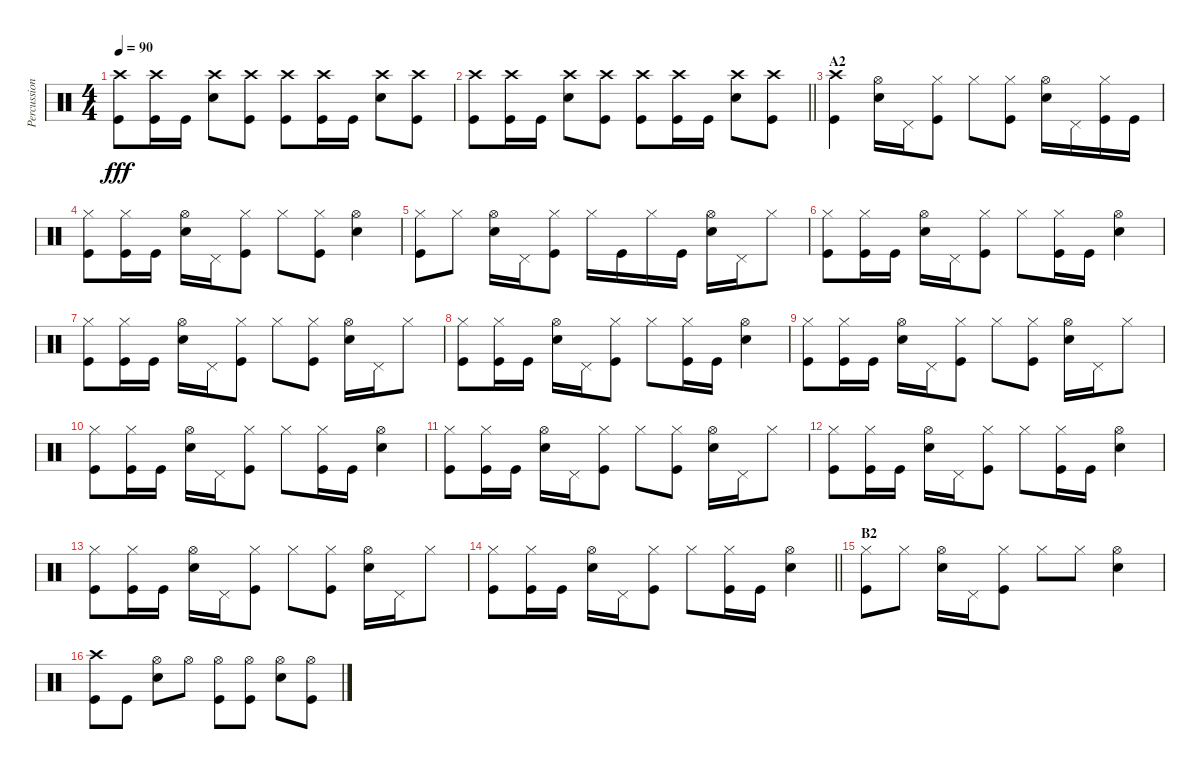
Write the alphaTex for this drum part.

\track ("Percussion" "Percussion") {instrument percussion}
\staff {score}
\articulation defaults
\ts (4 4)
\tempo 90
\clef neutral
\ks c
("Crash high (hit)" "Kick (hit)").8{dy fff} ("Crash high (hit)" "Kick (hit)").16 "Kick (hit)".16 ("Crash high (hit)" "Electric Snare (hit)").8 ("Crash high (hit)" "Kick (hit)").8 ("Crash high (hit)" "Kick (hit)").8 ("Crash high (hit)" "Kick (hit)").16 "Kick (hit)".16 ("Crash high (hit)" "Electric Snare (hit)").8 ("Crash high (hit)" "Kick (hit)").8 |
\barLineRight lightlight
("Crash high (hit)" "Kick (hit)").8 ("Crash high (hit)" "Kick (hit)").16 "Kick (hit)".16 ("Crash high (hit)" "Electric Snare (hit)").8 ("Crash high (hit)" "Kick (hit)").8 ("Crash high (hit)" "Kick (hit)").8 ("Crash high (hit)" "Kick (hit)").16 "Kick (hit)".16 ("Crash high (hit)" "Electric Snare (hit)").8 ("Crash high (hit)" "Kick (hit)").8 |
\section ("" "A2")
("Crash high (hit)" "Kick (hit)").4 ("Hi-Hat (open)" "Electric Snare (hit)").16 "Pedal Hi-Hat (hit)".16 ("Hi-Hat (closed)" "Kick (hit)").8 "Hi-Hat (closed)".8 ("Hi-Hat (closed)" "Kick (hit)").8 ("Hi-Hat (open)" "Electric Snare (hit)").16 "Pedal Hi-Hat (hit)".16 ("Hi-Hat (closed)" "Kick (hit)").16 "Kick (hit)".16 |
("Hi-Hat (closed)" "Kick (hit)").8 ("Hi-Hat (closed)" "Kick (hit)").16 "Kick (hit)".16 ("Hi-Hat (open)" "Electric Snare (hit)").16 "Pedal Hi-Hat (hit)".16 ("Hi-Hat (closed)" "Kick (hit)").8 "Hi-Hat (closed)".8 ("Hi-Hat (closed)" "Kick (hit)").8 ("Hi-Hat (open)" "Electric Snare (hit)").4 |
("Hi-Hat (closed)" "Kick (hit)").8 "Hi-Hat (closed)".8 ("Hi-Hat (open)" "Electric Snare (hit)").16 "Pedal Hi-Hat (hit)".16 ("Hi-Hat (closed)" "Kick (hit)").8 "Hi-Hat (closed)".16 "Kick (hit)".16 "Hi-Hat (closed)".16 "Kick (hit)".16 ("Hi-Hat (open)" "Electric Snare (hit)").16 "Pedal Hi-Hat (hit)".16 "Hi-Hat (closed)".8 |
("Hi-Hat (closed)" "Kick (hit)").8 ("Hi-Hat (closed)" "Kick (hit)").16 "Kick (hit)".16 ("Hi-Hat (open)" "Electric Snare (hit)").16 "Pedal Hi-Hat (hit)".16 ("Hi-Hat (closed)" "Kick (hit)").8 "Hi-Hat (closed)".8 ("Hi-Hat (closed)" "Kick (hit)").16 "Kick (hit)".16 ("Hi-Hat (open)" "Electric Snare (hit)").4 |
("Hi-Hat (closed)" "Kick (hit)").8 ("Hi-Hat (closed)" "Kick (hit)").16 "Kick (hit)".16 ("Hi-Hat (open)" "Electric Snare (hit)").16 "Pedal Hi-Hat (hit)".16 ("Hi-Hat (closed)" "Kick (hit)").8 "Hi-Hat (closed)".8 ("Hi-Hat (closed)" "Kick (hit)").8 ("Hi-Hat (open)" "Electric Snare (hit)").16 "Pedal Hi-Hat (hit)".16 "Hi-Hat (closed)".8 |
("Hi-Hat (closed)" "Kick (hit)").8 ("Hi-Hat (closed)" "Kick (hit)").16 "Kick (hit)".16 ("Hi-Hat (open)" "Electric Snare (hit)").16 "Pedal Hi-Hat (hit)".16 ("Hi-Hat (closed)" "Kick (hit)").8 "Hi-Hat (closed)".8 ("Hi-Hat (closed)" "Kick (hit)").16 "Kick (hit)".16 ("Hi-Hat (open)" "Electric Snare (hit)").4 |
("Hi-Hat (closed)" "Kick (hit)").8 ("Hi-Hat (closed)" "Kick (hit)").16 "Kick (hit)".16 ("Hi-Hat (open)" "Electric Snare (hit)").16 "Pedal Hi-Hat (hit)".16 ("Hi-Hat (closed)" "Kick (hit)").8 "Hi-Hat (closed)".8 ("Hi-Hat (closed)" "Kick (hit)").8 ("Hi-Hat (open)" "Electric Snare (hit)").16 "Pedal Hi-Hat (hit)".16 "Hi-Hat (closed)".8 |
("Hi-Hat (closed)" "Kick (hit)").8 ("Hi-Hat (closed)" "Kick (hit)").16 "Kick (hit)".16 ("Hi-Hat (open)" "Electric Snare (hit)").16 "Pedal Hi-Hat (hit)".16 ("Hi-Hat (closed)" "Kick (hit)").8 "Hi-Hat (closed)".8 ("Hi-Hat (closed)" "Kick (hit)").16 "Kick (hit)".16 ("Hi-Hat (open)" "Electric Snare (hit)").4 |
("Hi-Hat (closed)" "Kick (hit)").8 ("Hi-Hat (closed)" "Kick (hit)").16 "Kick (hit)".16 ("Hi-Hat (open)" "Electric Snare (hit)").16 "Pedal Hi-Hat (hit)".16 ("Hi-Hat (closed)" "Kick (hit)").8 "Hi-Hat (closed)".8 ("Hi-Hat (closed)" "Kick (hit)").8 ("Hi-Hat (open)" "Electric Snare (hit)").16 "Pedal Hi-Hat (hit)".16 "Hi-Hat (closed)".8 |
("Hi-Hat (closed)" "Kick (hit)").8 ("Hi-Hat (closed)" "Kick (hit)").16 "Kick (hit)".16 ("Hi-Hat (open)" "Electric Snare (hit)").16 "Pedal Hi-Hat (hit)".16 ("Hi-Hat (closed)" "Kick (hit)").8 "Hi-Hat (closed)".8 ("Hi-Hat (closed)" "Kick (hit)").16 "Kick (hit)".16 ("Hi-Hat (open)" "Electric Snare (hit)").4 |
("Hi-Hat (closed)" "Kick (hit)").8 ("Hi-Hat (closed)" "Kick (hit)").16 "Kick (hit)".16 ("Hi-Hat (open)" "Electric Snare (hit)").16 "Pedal Hi-Hat (hit)".16 ("Hi-Hat (closed)" "Kick (hit)").8 "Hi-Hat (closed)".8 ("Hi-Hat (closed)" "Kick (hit)").8 ("Hi-Hat (open)" "Electric Snare (hit)").16 "Pedal Hi-Hat (hit)".16 "Hi-Hat (closed)".8 |
\barLineRight lightlight
("Hi-Hat (closed)" "Kick (hit)").8 ("Hi-Hat (closed)" "Kick (hit)").16 "Kick (hit)".16 ("Hi-Hat (open)" "Electric Snare (hit)").16 "Pedal Hi-Hat (hit)".16 ("Hi-Hat (closed)" "Kick (hit)").8 "Hi-Hat (closed)".8 ("Hi-Hat (closed)" "Kick (hit)").16 "Kick (hit)".16 ("Hi-Hat (open)" "Electric Snare (hit)").4 |
\section ("" "B2")
("Hi-Hat (closed)" "Kick (hit)").8 "Hi-Hat (closed)".8 ("Hi-Hat (open)" "Electric Snare (hit)").16 "Pedal Hi-Hat (hit)".16 ("Hi-Hat (closed)" "Kick (hit)").8 "Hi-Hat (closed)".8 "Hi-Hat (closed)".8 ("Hi-Hat (open)" "Electric Snare (hit)").4 |
("Crash high (hit)" "Kick (hit)").8 "Kick (hit)".8 ("Hi-Hat (open)" "Electric Snare (hit)").8 "Hi-Hat (open)".8 ("Hi-Hat (open)" "Kick (hit)").8 ("Hi-Hat (open)" "Kick (hit)").8 ("Hi-Hat (open)" "Electric Snare (hit)").8 ("Hi-Hat (open)" "Kick (hit)").8
